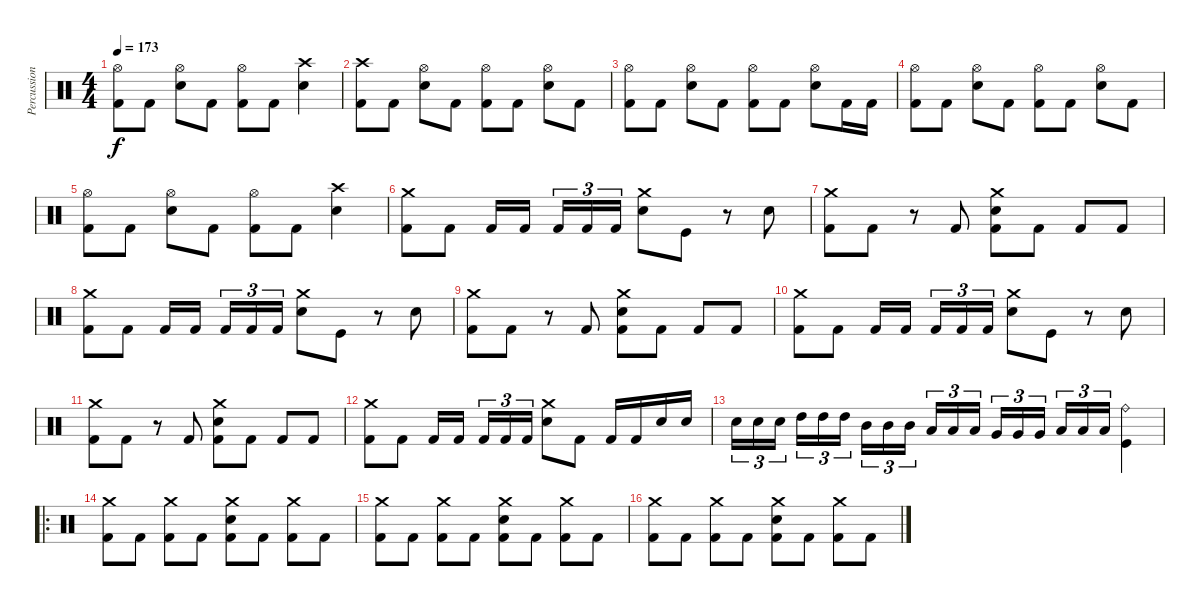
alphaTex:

\track ("Percussion" "Percussion") {instrument percussion}
\staff {score}
\articulation defaults
\ts (4 4)
\tempo 173
\clef neutral
\ks c
("Hi-Hat (open)" "Kick (hit) 2").8{dy f} "Kick (hit) 2".8 ("Hi-Hat (open)" "Electric Snare (hit)").8 "Kick (hit) 2".8 ("Hi-Hat (open)" "Kick (hit) 2").8 "Kick (hit) 2".8 ("Crash high (hit)" "Electric Snare (hit)").4 |
("Crash high (hit)" "Kick (hit) 2").8 "Kick (hit) 2".8 ("Hi-Hat (open)" "Electric Snare (hit)").8 "Kick (hit) 2".8 ("Hi-Hat (open)" "Kick (hit) 2").8 "Kick (hit) 2".8 ("Hi-Hat (open)" "Electric Snare (hit)").8 "Kick (hit) 2".8 |
("Hi-Hat (open)" "Kick (hit) 2").8 "Kick (hit) 2".8 ("Hi-Hat (open)" "Electric Snare (hit)").8 "Kick (hit) 2".8 ("Hi-Hat (open)" "Kick (hit) 2").8 "Kick (hit) 2".8 ("Hi-Hat (open)" "Electric Snare (hit)").8 "Kick (hit) 2".16 "Kick (hit) 2".16 |
("Hi-Hat (open)" "Kick (hit) 2").8 "Kick (hit) 2".8 ("Hi-Hat (open)" "Electric Snare (hit)").8 "Kick (hit) 2".8 ("Hi-Hat (open)" "Kick (hit) 2").8 "Kick (hit) 2".8 ("Hi-Hat (open)" "Electric Snare (hit)").8 "Kick (hit) 2".8 |
("Hi-Hat (open)" "Kick (hit) 2").8 "Kick (hit) 2".8 ("Hi-Hat (open)" "Electric Snare (hit)").8 "Kick (hit) 2".8 ("Hi-Hat (open)" "Kick (hit) 2").8 "Kick (hit) 2".8 ("Crash high (hit)" "Electric Snare (hit)").4 |
("Crash medium (hit)" "Kick (hit) 2").8 "Kick (hit) 2".8 "Kick (hit) 2".16 "Kick (hit) 2".16{beam splitsecondary} "Kick (hit) 2".16{tu (3 2)} "Kick (hit) 2".16{tu (3 2)} "Kick (hit) 2".16{tu (3 2)} ("Crash medium (hit)" "Electric Snare (hit)").8 "Kick (hit)".8 r.8 "Electric Snare (hit)".8 |
("Crash medium (hit)" "Kick (hit) 2").8 "Kick (hit) 2".8 r.8 "Kick (hit) 2".8 ("Crash medium (hit)" "Electric Snare (hit)" "Kick (hit) 2").8 "Kick (hit) 2".8 "Kick (hit) 2".8 "Kick (hit) 2".8 |
("Crash medium (hit)" "Kick (hit) 2").8 "Kick (hit) 2".8 "Kick (hit) 2".16 "Kick (hit) 2".16{beam splitsecondary} "Kick (hit) 2".16{tu (3 2)} "Kick (hit) 2".16{tu (3 2)} "Kick (hit) 2".16{tu (3 2)} ("Crash medium (hit)" "Electric Snare (hit)").8 "Kick (hit)".8 r.8 "Electric Snare (hit)".8 |
("Crash medium (hit)" "Kick (hit) 2").8 "Kick (hit) 2".8 r.8 "Kick (hit) 2".8 ("Crash medium (hit)" "Electric Snare (hit)" "Kick (hit) 2").8 "Kick (hit) 2".8 "Kick (hit) 2".8 "Kick (hit) 2".8 |
("Crash medium (hit)" "Kick (hit) 2").8 "Kick (hit) 2".8 "Kick (hit) 2".16 "Kick (hit) 2".16{beam splitsecondary} "Kick (hit) 2".16{tu (3 2)} "Kick (hit) 2".16{tu (3 2)} "Kick (hit) 2".16{tu (3 2)} ("Crash medium (hit)" "Electric Snare (hit)").8 "Kick (hit)".8 r.8 "Electric Snare (hit)".8 |
("Crash medium (hit)" "Kick (hit) 2").8 "Kick (hit) 2".8 r.8 "Kick (hit) 2".8 ("Crash medium (hit)" "Electric Snare (hit)" "Kick (hit) 2").8 "Kick (hit) 2".8 "Kick (hit) 2".8 "Kick (hit) 2".8 |
("Crash medium (hit)" "Kick (hit) 2").8 "Kick (hit) 2".8 "Kick (hit) 2".16 "Kick (hit) 2".16{beam splitsecondary} "Kick (hit) 2".16{tu (3 2)} "Kick (hit) 2".16{tu (3 2)} "Kick (hit) 2".16{tu (3 2)} ("Crash medium (hit)" "Electric Snare (hit)").8 "Kick (hit) 2".8 "Kick (hit) 2".16 "Kick (hit) 2".16 "Electric Snare (hit)".16 "Electric Snare (hit)".16 |
"Electric Snare (hit)".16{tu (3 2)} "Electric Snare (hit)".16{tu (3 2)} "Electric Snare (hit)".16{tu (3 2) beam splitsecondary} "High Tom (hit)".16{tu (3 2)} "High Tom (hit)".16{tu (3 2)} "High Tom (hit)".16{tu (3 2)} "Mid Tom (hit)".16{tu (3 2)} "Mid Tom (hit)".16{tu (3 2)} "Mid Tom (hit)".16{tu (3 2) beam splitsecondary} "Low Tom (hit)".16{tu (3 2)} "Low Tom (hit)".16{tu (3 2)} "Low Tom (hit)".16{tu (3 2)} "Very Low Tom (hit)".16{tu (3 2)} "Very Low Tom (hit)".16{tu (3 2)} "Very Low Tom (hit)".16{tu (3 2) beam splitsecondary} "Low Floor Tom (hit)".16{tu (3 2)} "Low Floor Tom (hit)".16{tu (3 2)} "Low Floor Tom (hit)".16{tu (3 2)} ("Ride (bell)" "Kick (hit)").4 |
\ro
("Crash medium (hit)" "Kick (hit) 2").8 "Kick (hit) 2".8 ("Crash medium (hit)" "Kick (hit) 2").8 "Kick (hit) 2".8 ("Crash medium (hit)" "Electric Snare (hit)" "Kick (hit) 2").8 "Kick (hit) 2".8 ("Crash medium (hit)" "Kick (hit) 2").8 "Kick (hit) 2".8 |
("Crash medium (hit)" "Kick (hit) 2").8 "Kick (hit) 2".8 ("Crash medium (hit)" "Kick (hit) 2").8 "Kick (hit) 2".8 ("Crash medium (hit)" "Electric Snare (hit)" "Kick (hit) 2").8 "Kick (hit) 2".8 ("Crash medium (hit)" "Kick (hit) 2").8 "Kick (hit) 2".8 |
("Crash medium (hit)" "Kick (hit) 2").8 "Kick (hit) 2".8 ("Crash medium (hit)" "Kick (hit) 2").8 "Kick (hit) 2".8 ("Crash medium (hit)" "Electric Snare (hit)" "Kick (hit) 2").8 "Kick (hit) 2".8 ("Crash medium (hit)" "Kick (hit) 2").8 "Kick (hit) 2".8
